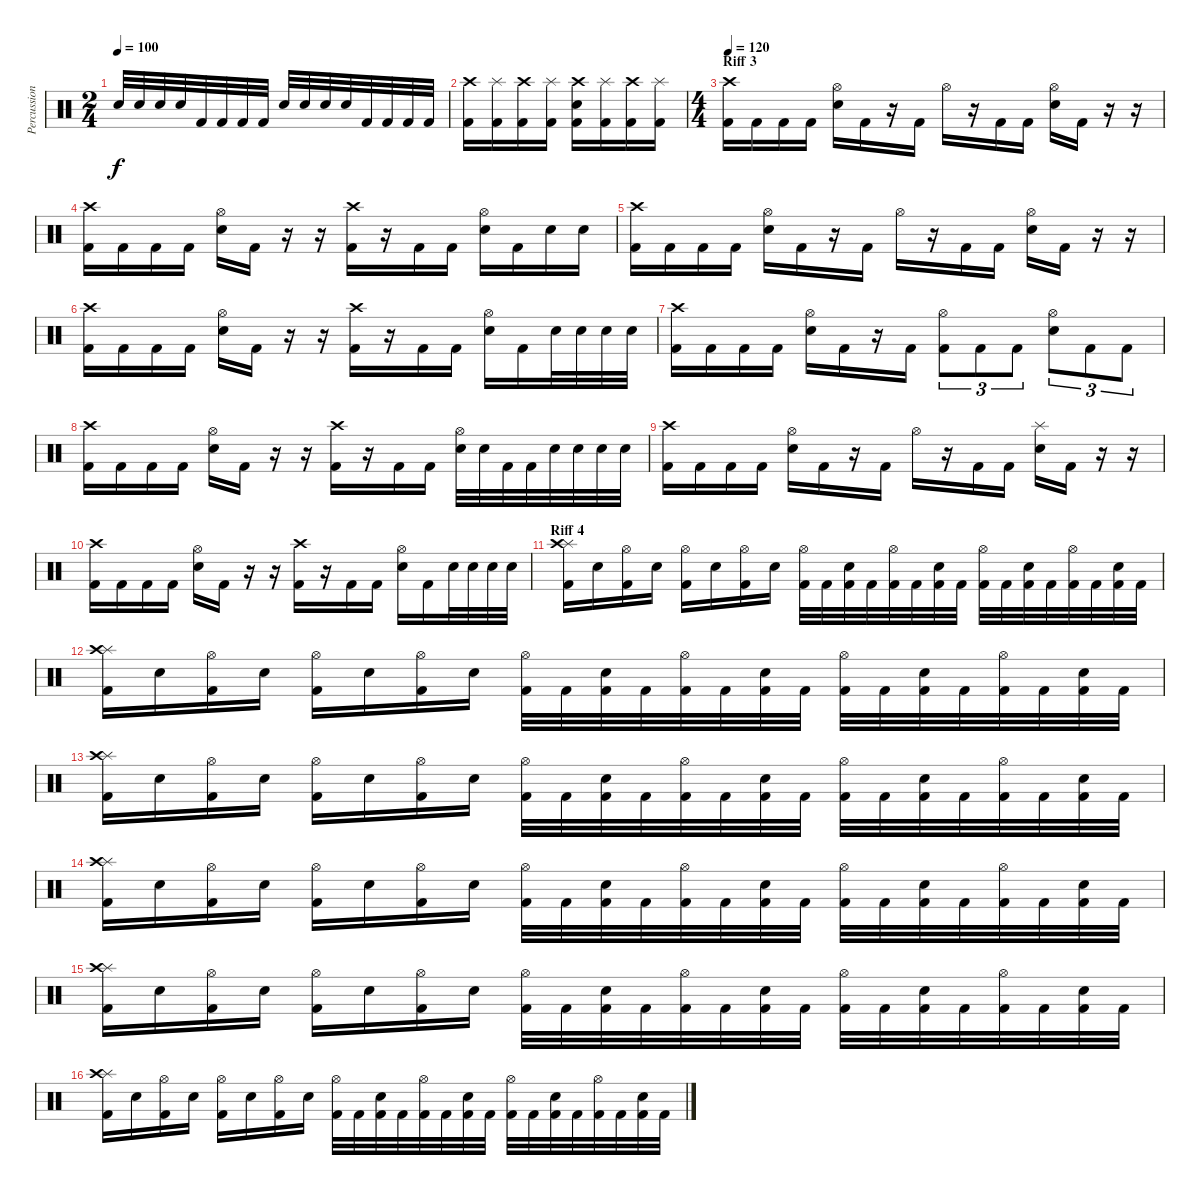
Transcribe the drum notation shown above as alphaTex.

\track ("Percussion" "Percussion") {instrument percussion}
\staff {score}
\articulation defaults
\ts (2 4)
\tempo 100
\clef neutral
\ks c "Electric Snare (hit)".32{dy f} "Electric Snare (hit)".32 "Electric Snare (hit)".32 "Electric Snare (hit)".32 "Kick (hit) 2".32 "Kick (hit) 2".32 "Kick (hit) 2".32 "Kick (hit) 2".32 "Electric Snare (hit)".32 "Electric Snare (hit)".32 "Electric Snare (hit)".32 "Electric Snare (hit)".32 "Kick (hit) 2".32 "Kick (hit) 2".32 "Kick (hit) 2".32 "Kick (hit) 2".32
|
("Crash high (hit)" "Kick (hit) 2").16 ("Splash (hit)" "Kick (hit) 2").16 ("Crash high (hit)" "Kick (hit) 2").16 ("Splash (hit)" "Kick (hit) 2").16 ("Crash high (hit)" "Electric Snare (hit)" "Kick (hit) 2").16 ("Splash (hit)" "Kick (hit) 2").16 ("Crash high (hit)" "Kick (hit) 2").16 ("Splash (hit)" "Kick (hit) 2").16 |
\ts (4 4)
\section ("" "Riff 3")
\tempo 120
("Crash high (hit)" "Kick (hit) 2").16 "Kick (hit) 2".16 "Kick (hit) 2".16 "Kick (hit) 2".16 ("Hi-Hat (open)" "Electric Snare (hit)").16 "Kick (hit) 2".16 r.16 "Kick (hit) 2".16 "Hi-Hat (open)".16 r.16 "Kick (hit) 2".16 "Kick (hit) 2".16 ("Hi-Hat (open)" "Electric Snare (hit)").16 "Kick (hit) 2".16 r.16 r.16 |
("Crash high (hit)" "Kick (hit) 2").16 "Kick (hit) 2".16 "Kick (hit) 2".16 "Kick (hit) 2".16 ("Hi-Hat (open)" "Electric Snare (hit)").16 "Kick (hit) 2".16 r.16 r.16 ("Crash high (hit)" "Kick (hit) 2").16 r.16 "Kick (hit) 2".16 "Kick (hit) 2".16 ("Hi-Hat (open)" "Electric Snare (hit)").16 "Kick (hit) 2".16 "Electric Snare (hit)".16 "Electric Snare (hit)".16 |
("Crash high (hit)" "Kick (hit) 2").16 "Kick (hit) 2".16 "Kick (hit) 2".16 "Kick (hit) 2".16 ("Hi-Hat (open)" "Electric Snare (hit)").16 "Kick (hit) 2".16 r.16 "Kick (hit) 2".16 "Hi-Hat (open)".16 r.16 "Kick (hit) 2".16 "Kick (hit) 2".16 ("Hi-Hat (open)" "Electric Snare (hit)").16 "Kick (hit) 2".16 r.16 r.16 |
("Crash high (hit)" "Kick (hit) 2").16 "Kick (hit) 2".16 "Kick (hit) 2".16 "Kick (hit) 2".16 ("Hi-Hat (open)" "Electric Snare (hit)").16 "Kick (hit) 2".16 r.16 r.16 ("Crash high (hit)" "Kick (hit) 2").16 r.16 "Kick (hit) 2".16 "Kick (hit) 2".16 ("Hi-Hat (open)" "Electric Snare (hit)").16 "Kick (hit) 2".16 "Electric Snare (hit)".32 "Electric Snare (hit)".32 "Electric Snare (hit)".32 "Electric Snare (hit)".32 |
("Crash high (hit)" "Kick (hit) 2").16 "Kick (hit) 2".16 "Kick (hit) 2".16 "Kick (hit) 2".16 ("Hi-Hat (open)" "Electric Snare (hit)").16 "Kick (hit) 2".16 r.16 "Kick (hit) 2".16 ("Hi-Hat (open)" "Kick (hit) 2").8{tu (3 2)} "Kick (hit) 2".8{tu (3 2)} "Kick (hit) 2".8{tu (3 2)} ("Hi-Hat (open)" "Electric Snare (hit)").8{tu (3 2)} "Kick (hit) 2".8{tu (3 2)} "Kick (hit) 2".8{tu (3 2)} |
("Crash high (hit)" "Kick (hit) 2").16 "Kick (hit) 2".16 "Kick (hit) 2".16 "Kick (hit) 2".16 ("Hi-Hat (open)" "Electric Snare (hit)").16 "Kick (hit) 2".16 r.16 r.16 ("Crash high (hit)" "Kick (hit) 2").16 r.16 "Kick (hit) 2".16 "Kick (hit) 2".16 ("Hi-Hat (open)" "Electric Snare (hit)").32 "Electric Snare (hit)".32 "Kick (hit) 2".32 "Kick (hit) 2".32 "Electric Snare (hit)".32 "Electric Snare (hit)".32 "Electric Snare (hit)".32 "Electric Snare (hit)".32 |
("Crash high (hit)" "Kick (hit) 2").16 "Kick (hit) 2".16 "Kick (hit) 2".16 "Kick (hit) 2".16 ("Hi-Hat (open)" "Electric Snare (hit)").16 "Kick (hit) 2".16 r.16 "Kick (hit) 2".16 "Hi-Hat (open)".16 r.16 "Kick (hit) 2".16 "Kick (hit) 2".16 ("Splash (hit)" "Electric Snare (hit)").16 "Kick (hit) 2".16 r.16 r.16 |
("Crash high (hit)" "Kick (hit) 2").16 "Kick (hit) 2".16 "Kick (hit) 2".16 "Kick (hit) 2".16 ("Hi-Hat (open)" "Electric Snare (hit)").16 "Kick (hit) 2".16 r.16 r.16 ("Crash high (hit)" "Kick (hit) 2").16 r.16 "Kick (hit) 2".16 "Kick (hit) 2".16 ("Hi-Hat (open)" "Electric Snare (hit)").16 "Kick (hit) 2".16 "Electric Snare (hit)".32 "Electric Snare (hit)".32 "Electric Snare (hit)".32 "Electric Snare (hit)".32 |
\section ("" "Riff 4")
("Splash (hit)" "Crash high (hit)" "Kick (hit) 2").16 "Electric Snare (hit)".16 ("Hi-Hat (open)" "Kick (hit) 2").16 "Electric Snare (hit)".16 ("Hi-Hat (open)" "Kick (hit) 2").16 "Electric Snare (hit)".16 ("Hi-Hat (open)" "Kick (hit) 2").16 "Electric Snare (hit)".16 ("Hi-Hat (open)" "Kick (hit) 2").32 "Kick (hit) 2".32 ("Electric Snare (hit)" "Kick (hit) 2").32 "Kick (hit) 2".32 ("Hi-Hat (open)" "Kick (hit) 2").32 "Kick (hit) 2".32 ("Electric Snare (hit)" "Kick (hit) 2").32 "Kick (hit) 2".32 ("Hi-Hat (open)" "Kick (hit) 2").32 "Kick (hit) 2".32 ("Electric Snare (hit)" "Kick (hit) 2").32 "Kick (hit) 2".32 ("Hi-Hat (open)" "Kick (hit) 2").32 "Kick (hit) 2".32 ("Electric Snare (hit)" "Kick (hit) 2").32 "Kick (hit) 2".32 |
("Splash (hit)" "Crash high (hit)" "Kick (hit) 2").16 "Electric Snare (hit)".16 ("Hi-Hat (open)" "Kick (hit) 2").16 "Electric Snare (hit)".16 ("Hi-Hat (open)" "Kick (hit) 2").16 "Electric Snare (hit)".16 ("Hi-Hat (open)" "Kick (hit) 2").16 "Electric Snare (hit)".16 ("Hi-Hat (open)" "Kick (hit) 2").32 "Kick (hit) 2".32 ("Electric Snare (hit)" "Kick (hit) 2").32 "Kick (hit) 2".32 ("Hi-Hat (open)" "Kick (hit) 2").32 "Kick (hit) 2".32 ("Electric Snare (hit)" "Kick (hit) 2").32 "Kick (hit) 2".32 ("Hi-Hat (open)" "Kick (hit) 2").32 "Kick (hit) 2".32 ("Electric Snare (hit)" "Kick (hit) 2").32 "Kick (hit) 2".32 ("Hi-Hat (open)" "Kick (hit) 2").32 "Kick (hit) 2".32 ("Electric Snare (hit)" "Kick (hit) 2").32 "Kick (hit) 2".32 |
("Splash (hit)" "Crash high (hit)" "Kick (hit) 2").16 "Electric Snare (hit)".16 ("Hi-Hat (open)" "Kick (hit) 2").16 "Electric Snare (hit)".16 ("Hi-Hat (open)" "Kick (hit) 2").16 "Electric Snare (hit)".16 ("Hi-Hat (open)" "Kick (hit) 2").16 "Electric Snare (hit)".16 ("Hi-Hat (open)" "Kick (hit) 2").32 "Kick (hit) 2".32 ("Electric Snare (hit)" "Kick (hit) 2").32 "Kick (hit) 2".32 ("Hi-Hat (open)" "Kick (hit) 2").32 "Kick (hit) 2".32 ("Electric Snare (hit)" "Kick (hit) 2").32 "Kick (hit) 2".32 ("Hi-Hat (open)" "Kick (hit) 2").32 "Kick (hit) 2".32 ("Electric Snare (hit)" "Kick (hit) 2").32 "Kick (hit) 2".32 ("Hi-Hat (open)" "Kick (hit) 2").32 "Kick (hit) 2".32 ("Electric Snare (hit)" "Kick (hit) 2").32 "Kick (hit) 2".32 |
("Splash (hit)" "Crash high (hit)" "Kick (hit) 2").16 "Electric Snare (hit)".16 ("Hi-Hat (open)" "Kick (hit) 2").16 "Electric Snare (hit)".16 ("Hi-Hat (open)" "Kick (hit) 2").16 "Electric Snare (hit)".16 ("Hi-Hat (open)" "Kick (hit) 2").16 "Electric Snare (hit)".16 ("Hi-Hat (open)" "Kick (hit) 2").32 "Kick (hit) 2".32 ("Electric Snare (hit)" "Kick (hit) 2").32 "Kick (hit) 2".32 ("Hi-Hat (open)" "Kick (hit) 2").32 "Kick (hit) 2".32 ("Electric Snare (hit)" "Kick (hit) 2").32 "Kick (hit) 2".32 ("Hi-Hat (open)" "Kick (hit) 2").32 "Kick (hit) 2".32 ("Electric Snare (hit)" "Kick (hit) 2").32 "Kick (hit) 2".32 ("Hi-Hat (open)" "Kick (hit) 2").32 "Kick (hit) 2".32 ("Electric Snare (hit)" "Kick (hit) 2").32 "Kick (hit) 2".32 |
("Splash (hit)" "Crash high (hit)" "Kick (hit) 2").16 "Electric Snare (hit)".16 ("Hi-Hat (open)" "Kick (hit) 2").16 "Electric Snare (hit)".16 ("Hi-Hat (open)" "Kick (hit) 2").16 "Electric Snare (hit)".16 ("Hi-Hat (open)" "Kick (hit) 2").16 "Electric Snare (hit)".16 ("Hi-Hat (open)" "Kick (hit) 2").32 "Kick (hit) 2".32 ("Electric Snare (hit)" "Kick (hit) 2").32 "Kick (hit) 2".32 ("Hi-Hat (open)" "Kick (hit) 2").32 "Kick (hit) 2".32 ("Electric Snare (hit)" "Kick (hit) 2").32 "Kick (hit) 2".32 ("Hi-Hat (open)" "Kick (hit) 2").32 "Kick (hit) 2".32 ("Electric Snare (hit)" "Kick (hit) 2").32 "Kick (hit) 2".32 ("Hi-Hat (open)" "Kick (hit) 2").32 "Kick (hit) 2".32 ("Electric Snare (hit)" "Kick (hit) 2").32 "Kick (hit) 2".32 |
("Splash (hit)" "Crash high (hit)" "Kick (hit) 2").16 "Electric Snare (hit)".16 ("Hi-Hat (open)" "Kick (hit) 2").16 "Electric Snare (hit)".16 ("Hi-Hat (open)" "Kick (hit) 2").16 "Electric Snare (hit)".16 ("Hi-Hat (open)" "Kick (hit) 2").16 "Electric Snare (hit)".16 ("Hi-Hat (open)" "Kick (hit) 2").32 "Kick (hit) 2".32 ("Electric Snare (hit)" "Kick (hit) 2").32 "Kick (hit) 2".32 ("Hi-Hat (open)" "Kick (hit) 2").32 "Kick (hit) 2".32 ("Electric Snare (hit)" "Kick (hit) 2").32 "Kick (hit) 2".32 ("Hi-Hat (open)" "Kick (hit) 2").32 "Kick (hit) 2".32 ("Electric Snare (hit)" "Kick (hit) 2").32 "Kick (hit) 2".32 ("Hi-Hat (open)" "Kick (hit) 2").32 "Kick (hit) 2".32 ("Electric Snare (hit)" "Kick (hit) 2").32 "Kick (hit) 2".32
